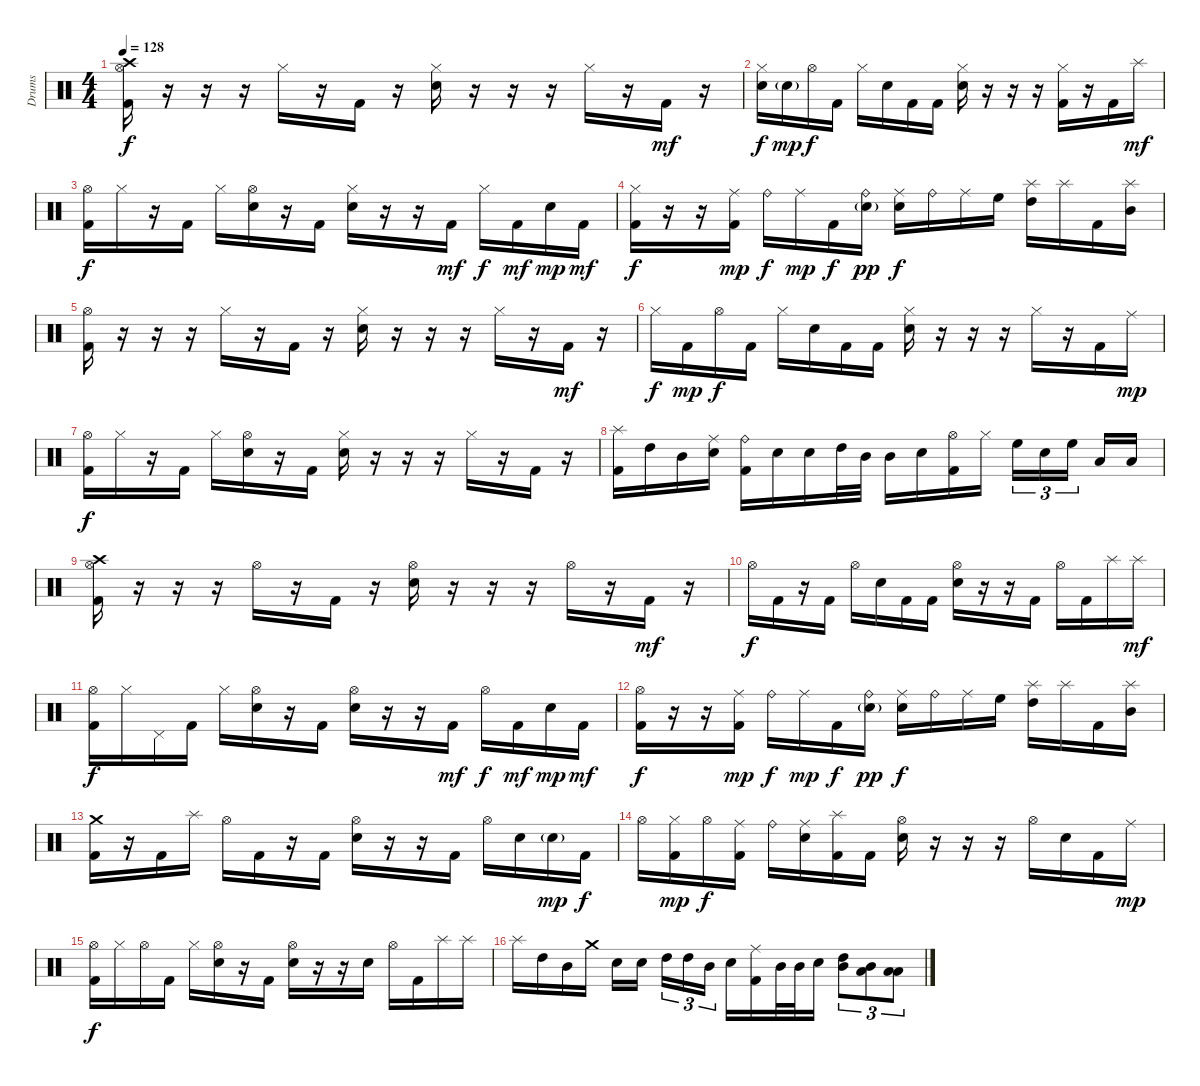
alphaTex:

\track ("Drums" "Drums") {instrument percussion}
\staff {score}
\articulation defaults
\ts (4 4)
\tempo 128
\clef neutral
\ks c
("Crash high (hit)" "Hi-Hat (open)" "Kick (hit) 2").16{dy f} r.16 r.16 r.16 "Hi-Hat (closed)".16 r.16 "Kick (hit) 2".16 r.16 ("Hi-Hat (closed)" "Electric Snare (hit)").16 r.16 r.16 r.16 "Hi-Hat (closed)".16 r.16 "Kick (hit) 2".16{dy mf} r.16 |
("Hi-Hat (closed)" "Electric Snare (hit)").16{dy f} "Electric Snare (hit)"{g}.16{dy mp} "Hi-Hat (open)".16{dy f} "Kick (hit) 2".16 "Hi-Hat (closed)".16 "Electric Snare (hit)".16 "Kick (hit) 2".16 "Kick (hit) 2".16 ("Hi-Hat (closed)" "Electric Snare (hit)").16 r.16 r.16 r.16 ("Hi-Hat (closed)" "Kick (hit) 2").16 r.16 "Kick (hit) 2".16 "Splash (hit)".16{dy mf} |
("Hi-Hat (open)" "Kick (hit) 2").16{dy f} "Hi-Hat (closed)".16 r.16 "Kick (hit) 2".16 "Hi-Hat (closed)".16 ("Hi-Hat (open)" "Electric Snare (hit)").16 r.16 "Kick (hit) 2".16 ("Hi-Hat (closed)" "Electric Snare (hit)").16 r.16 r.16 "Kick (hit) 2".16{dy mf} "Hi-Hat (closed)".16{dy f} "Kick (hit) 2".16{dy mf} "Electric Snare (hit)".16{dy mp} "Kick (hit) 2".16{dy mf} |
("Hi-Hat (closed)" "Kick (hit) 2").16{dy f} r.16 r.16 ("Ride (middle)" "Kick (hit) 2").16{dy mp} "Ride (bell)".16{dy f} "Ride (middle)".16{dy mp} "Kick (hit) 2".16{dy f} ("Ride (bell)" "Electric Snare (hit)"{g}).16{dy pp} ("Ride (middle)" "Electric Snare (hit)").16{dy f} "Ride (bell)".16 "Ride (middle)".16 "High Floor Tom (hit)".16 ("Splash (hit)" "High Tom (hit)").16 "Splash (hit)".16 "Kick (hit) 2".16 ("Splash (hit)" "Mid Tom (hit)").16 |
("Hi-Hat (open)" "Kick (hit) 2").16 r.16 r.16 r.16 "Hi-Hat (closed)".16 r.16 "Kick (hit) 2".16 r.16 ("Hi-Hat (closed)" "Electric Snare (hit)").16 r.16 r.16 r.16 "Hi-Hat (closed)".16 r.16 "Kick (hit) 2".16{dy mf} r.16 |
"Hi-Hat (closed)".16{dy f} "Kick (hit) 2".16{dy mp} "Hi-Hat (open)".16{dy f} "Kick (hit) 2".16 "Hi-Hat (closed)".16 "Electric Snare (hit)".16 "Kick (hit) 2".16 "Kick (hit) 2".16 ("Hi-Hat (closed)" "Electric Snare (hit)").16 r.16 r.16 r.16 "Hi-Hat (closed)".16 r.16 "Kick (hit) 2".16 "Ride (middle)".16{dy mp} |
("Hi-Hat (open)" "Kick (hit) 2").16{dy f} "Hi-Hat (closed)".16 r.16 "Kick (hit) 2".16 "Hi-Hat (closed)".16 ("Hi-Hat (open)" "Electric Snare (hit)").16 r.16 "Kick (hit) 2".16 ("Hi-Hat (closed)" "Electric Snare (hit)").16 r.16 r.16 r.16 "Hi-Hat (closed)".16 r.16 "Kick (hit) 2".16 r.16 |
("Splash (hit)" "Kick (hit) 2").16 "High Tom (hit)".16 "Mid Tom (hit)".16 ("Ride (middle)" "Electric Snare (hit)").16 ("Ride (bell)" "Kick (hit) 2").16 "Electric Snare (hit)".16 "Electric Snare (hit)".16 "High Tom (hit)".32 "Mid Tom (hit)".32 "Mid Tom (hit)".16 "Electric Snare (hit)".16 ("Hi-Hat (open)" "Kick (hit) 2").16 "Hi-Hat (closed)".16 "High Floor Tom (hit)".16{tu (3 2)} "Electric Snare (hit)".16{tu (3 2)} "High Floor Tom (hit)".16{tu (3 2)} "Low Tom (hit)".16 "Low Tom (hit)".16 |
("Crash high (hit)" "Hi-Hat (open)" "Kick (hit) 2").16 r.16 r.16 r.16 "Hi-Hat (open)".16 r.16 "Kick (hit) 2".16 r.16 ("Hi-Hat (open)" "Electric Snare (hit)").16 r.16 r.16 r.16 "Hi-Hat (open)".16 r.16 "Kick (hit) 2".16{dy mf} r.16 |
"Hi-Hat (open)".16{dy f} "Kick (hit) 2".16 r.16 "Kick (hit) 2".16 "Hi-Hat (open)".16 "Electric Snare (hit)".16 "Kick (hit) 2".16 "Kick (hit) 2".16 ("Hi-Hat (open)" "Electric Snare (hit)").16 r.16 r.16 "Kick (hit) 2".16 "Hi-Hat (open)".16 "Kick (hit) 2".16 "Splash (hit)".16 "Splash (hit)".16{dy mf} |
("Hi-Hat (open)" "Kick (hit) 2").16{dy f} "Hi-Hat (closed)".16 "Pedal Hi-Hat (hit)".16 "Kick (hit) 2".16 "Hi-Hat (closed)".16 ("Hi-Hat (open)" "Electric Snare (hit)").16 r.16 "Kick (hit) 2".16 ("Hi-Hat (open)" "Electric Snare (hit)").16 r.16 r.16 "Kick (hit) 2".16{dy mf} "Hi-Hat (open)".16{dy f} "Kick (hit) 2".16{dy mf} "Electric Snare (hit)".16{dy mp} "Kick (hit) 2".16{dy mf} |
("Hi-Hat (open)" "Kick (hit) 2").16{dy f} r.16 r.16 ("Ride (middle)" "Kick (hit) 2").16{dy mp} "Ride (bell)".16{dy f} "Ride (middle)".16{dy mp} "Kick (hit) 2".16{dy f} ("Ride (bell)" "Electric Snare (hit)"{g}).16{dy pp} ("Ride (middle)" "Electric Snare (hit)").16{dy f} "Ride (bell)".16 "Ride (middle)".16 "High Floor Tom (hit)".16 ("Splash (hit)" "High Tom (hit)").16 "Splash (hit)".16 "Kick (hit) 2".16 ("Splash (hit)" "Mid Tom (hit)").16 |
("Crash medium (hit)" "Kick (hit) 2").16 r.16 "Kick (hit) 2".16 "Splash (hit)".16 "Hi-Hat (open)".16 "Kick (hit) 2".16 r.16 "Kick (hit) 2".16 ("Hi-Hat (open)" "Electric Snare (hit)").16 r.16 r.16 "Kick (hit) 2".16 "Hi-Hat (open)".16 "Electric Snare (hit)".16 "Electric Snare (hit)"{g}.16{dy mp} "Kick (hit) 2".16{dy f} |
"Hi-Hat (open)".16 ("Hi-Hat (closed)" "Kick (hit) 2").16{dy mp} "Hi-Hat (open)".16{dy f} ("Ride (middle)" "Kick (hit) 2").16 "Ride (bell)".16 ("Ride (middle)" "Electric Snare (hit)").16 ("Splash (hit)" "Kick (hit) 2").16 "Kick (hit) 2".16 ("Hi-Hat (open)" "Electric Snare (hit)").16 r.16 r.16 r.16 "Hi-Hat (open)".16 "Electric Snare (hit)".16 "Kick (hit) 2".16 "Ride (middle)".16{dy mp} |
("Hi-Hat (open)" "Kick (hit) 2").16{dy f} "Hi-Hat (closed)".16 "Hi-Hat (open)".16 "Kick (hit) 2".16 "Hi-Hat (closed)".16 ("Hi-Hat (open)" "Electric Snare (hit)").16 r.16 "Kick (hit) 2".16 ("Hi-Hat (open)" "Electric Snare (hit)").16 r.16 r.16 "Electric Snare (hit)".16 "Hi-Hat (open)".16 "Kick (hit) 2".16 "Splash (hit)".16 "Splash (hit)".16 |
"Splash (hit)".16 "High Tom (hit)".16 "Mid Tom (hit)".16 "Crash medium (hit)".16 "Electric Snare (hit)".16 "Electric Snare (hit)".16 "High Tom (hit)".16{tu (3 2)} "High Tom (hit)".16{tu (3 2)} "Mid Tom (hit)".16{tu (3 2)} "Electric Snare (hit)".16 ("Ride (middle)" "Kick (hit) 2").16 "Mid Tom (hit)".32 "Mid Tom (hit)".32 "Electric Snare (hit)".16 ("Mid Tom (hit)" "High Tom (hit)").8{tu (3 2)} ("Low Tom (hit)" "Mid Tom (hit)").8{tu (3 2)} ("Low Tom (hit)" "Low Floor Tom (hit)").8{tu (3 2)}
